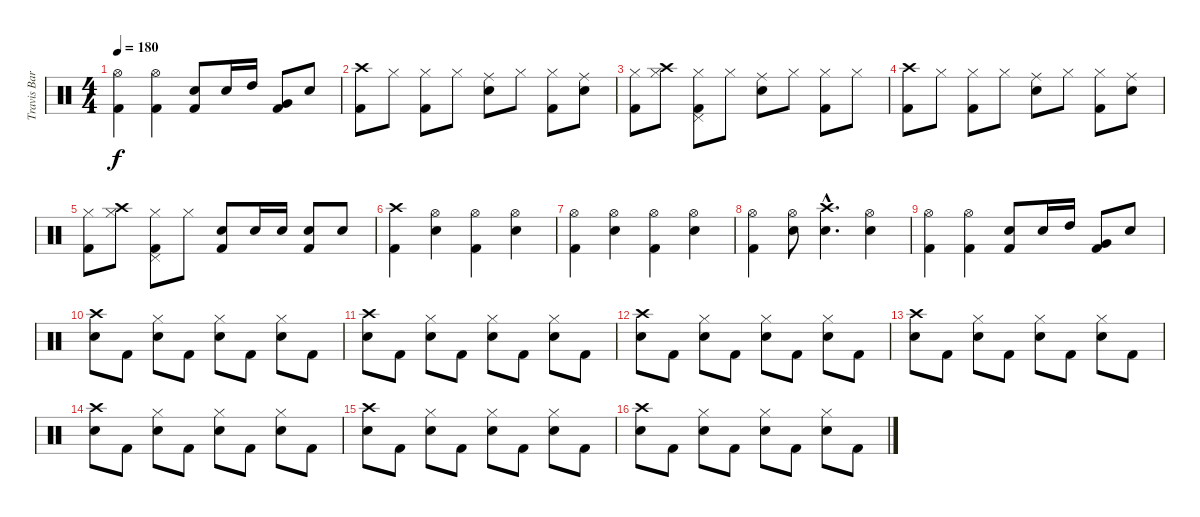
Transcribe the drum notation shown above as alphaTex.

\track ("Travis Barker" "Travis Bar") {instrument percussion}
\staff {score}
\articulation defaults
\ts (4 4)
\tempo 180
\clef neutral
\ks c
("Hi-Hat (open)" "Kick (hit) 2").4{dy f} ("Hi-Hat (open)" "Kick (hit) 2").4 ("Electric Snare (hit)" "Kick (hit) 2").8 "Electric Snare (hit)".16 "High Tom (hit)".16 ("Kick (hit) 2" "Very Low Tom (hit)").8 "Electric Snare (hit)".8 |
("Crash high (hit)" "Kick (hit) 2").8 "Hi-Hat (closed)".8 ("Hi-Hat (closed)" "Kick (hit) 2").8 "Hi-Hat (closed)".8 ("Ride (middle)" "Electric Snare (hit)").8 "Hi-Hat (closed)".8 ("Hi-Hat (closed)" "Kick (hit) 2").8 ("Ride (middle)" "Electric Snare (hit)").8 |
("Hi-Hat (closed)" "Kick (hit) 2").8 ("Crash high (hit)" "Hi-Hat (closed)").8 ("Hi-Hat (closed)" "Kick (hit) 2" "Pedal Hi-Hat (hit)").8 "Hi-Hat (closed)".8 ("Ride (middle)" "Electric Snare (hit)").8 "Hi-Hat (closed)".8 ("Hi-Hat (closed)" "Kick (hit) 2").8 "Hi-Hat (closed)".8 |
("Crash high (hit)" "Kick (hit) 2").8 "Hi-Hat (closed)".8 ("Hi-Hat (closed)" "Kick (hit) 2").8 "Hi-Hat (closed)".8 ("Ride (middle)" "Electric Snare (hit)").8 "Hi-Hat (closed)".8 ("Hi-Hat (closed)" "Kick (hit) 2").8 ("Ride (middle)" "Electric Snare (hit)").8 |
("Hi-Hat (closed)" "Kick (hit) 2").8 ("Crash high (hit)" "Hi-Hat (closed)").8 ("Hi-Hat (closed)" "Kick (hit) 2" "Pedal Hi-Hat (hit)").8 "Hi-Hat (closed)".8 ("Electric Snare (hit)" "Kick (hit) 2").8 "Electric Snare (hit)".16 "Electric Snare (hit)".16 ("Electric Snare (hit)" "Kick (hit) 2").8 "Electric Snare (hit)".8 |
("Crash high (hit)" "Kick (hit) 2").4 ("Hi-Hat (open)" "Electric Snare (hit)").4 ("Hi-Hat (open)" "Kick (hit) 2").4 ("Hi-Hat (open)" "Electric Snare (hit)").4 |
("Hi-Hat (open)" "Kick (hit) 2").4 ("Hi-Hat (open)" "Electric Snare (hit)").4 ("Hi-Hat (open)" "Kick (hit) 2").4 ("Hi-Hat (open)" "Electric Snare (hit)").4 |
("Hi-Hat (open)" "Kick (hit) 2").4 ("Hi-Hat (open)" "Electric Snare (hit)").8 ("Crash high (hit)"{hac} "Electric Snare (hit)"{hac}).4{d} ("Hi-Hat (open)" "Electric Snare (hit)").4 |
("Hi-Hat (open)" "Kick (hit) 2").4 ("Hi-Hat (open)" "Kick (hit) 2").4 ("Electric Snare (hit)" "Kick (hit) 2").8 "Electric Snare (hit)".16 "High Tom (hit)".16 ("Kick (hit) 2" "Very Low Tom (hit)").8 "Electric Snare (hit)".8 |
("Crash high (hit)" "Electric Snare (hit)").8 "Kick (hit) 2".8 ("Hi-Hat (closed)" "Electric Snare (hit)").8 "Kick (hit) 2".8 ("Hi-Hat (closed)" "Electric Snare (hit)").8 "Kick (hit) 2".8 ("Hi-Hat (closed)" "Electric Snare (hit)").8 "Kick (hit) 2".8 |
("Crash high (hit)" "Electric Snare (hit)").8 "Kick (hit) 2".8 ("Hi-Hat (closed)" "Electric Snare (hit)").8 "Kick (hit) 2".8 ("Hi-Hat (closed)" "Electric Snare (hit)").8 "Kick (hit) 2".8 ("Hi-Hat (closed)" "Electric Snare (hit)").8 "Kick (hit) 2".8 |
("Crash high (hit)" "Electric Snare (hit)").8 "Kick (hit) 2".8 ("Hi-Hat (closed)" "Electric Snare (hit)").8 "Kick (hit) 2".8 ("Hi-Hat (closed)" "Electric Snare (hit)").8 "Kick (hit) 2".8 ("Hi-Hat (closed)" "Electric Snare (hit)").8 "Kick (hit) 2".8 |
("Crash high (hit)" "Electric Snare (hit)").8 "Kick (hit) 2".8 ("Hi-Hat (closed)" "Electric Snare (hit)").8 "Kick (hit) 2".8 ("Hi-Hat (closed)" "Electric Snare (hit)").8 "Kick (hit) 2".8 ("Hi-Hat (closed)" "Electric Snare (hit)").8 "Kick (hit) 2".8 |
("Crash high (hit)" "Electric Snare (hit)").8 "Kick (hit) 2".8 ("Hi-Hat (closed)" "Electric Snare (hit)").8 "Kick (hit) 2".8 ("Hi-Hat (closed)" "Electric Snare (hit)").8 "Kick (hit) 2".8 ("Hi-Hat (closed)" "Electric Snare (hit)").8 "Kick (hit) 2".8 |
("Crash high (hit)" "Electric Snare (hit)").8 "Kick (hit) 2".8 ("Hi-Hat (closed)" "Electric Snare (hit)").8 "Kick (hit) 2".8 ("Hi-Hat (closed)" "Electric Snare (hit)").8 "Kick (hit) 2".8 ("Hi-Hat (closed)" "Electric Snare (hit)").8 "Kick (hit) 2".8 |
("Crash high (hit)" "Electric Snare (hit)").8 "Kick (hit) 2".8 ("Hi-Hat (closed)" "Electric Snare (hit)").8 "Kick (hit) 2".8 ("Hi-Hat (closed)" "Electric Snare (hit)").8 "Kick (hit) 2".8 ("Hi-Hat (closed)" "Electric Snare (hit)").8 "Kick (hit) 2".8
